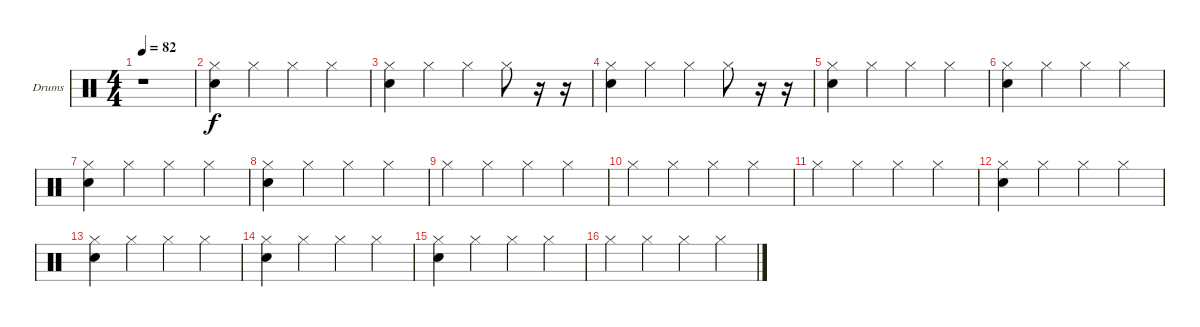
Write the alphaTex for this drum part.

\bracketExtendMode groupsimilarinstruments
\firstSystemTrackNameOrientation horizontal
\otherSystemsTrackNameOrientation horizontal
\track ("Drumkit" "Drums") {instrument percussion}
\staff {score}
\articulation defaults
\ts (4 4)
\tempo 82
\clef neutral
\ks aminor
r.1{dy f} |
\ks c
("Snare (hit) 2" "Hi-Hat (closed)").4 "Hi-Hat (closed)".4 "Hi-Hat (closed)".4 "Hi-Hat (closed)".4 |
("Snare (hit) 2" "Hi-Hat (closed)").4 "Hi-Hat (closed)".4 "Hi-Hat (closed)".4 "Hi-Hat (closed)".8 r.16 r.16 |
("Snare (hit) 2" "Hi-Hat (closed)").4 "Hi-Hat (closed)".4 "Hi-Hat (closed)".4 "Hi-Hat (closed)".8 r.16 r.16 |
("Snare (hit) 2" "Hi-Hat (closed)").4 "Hi-Hat (closed)".4 "Hi-Hat (closed)".4 "Hi-Hat (closed)".4 |
("Snare (hit) 2" "Hi-Hat (closed)").4 "Hi-Hat (closed)".4 "Hi-Hat (closed)".4 "Hi-Hat (closed)".4 |
("Snare (hit) 2" "Hi-Hat (closed)").4 "Hi-Hat (closed)".4 "Hi-Hat (closed)".4 "Hi-Hat (closed)".4 |
("Snare (hit) 2" "Hi-Hat (closed)").4 "Hi-Hat (closed)".4 "Hi-Hat (closed)".4 "Hi-Hat (closed)".4 |
"Hi-Hat (closed)".4 "Hi-Hat (closed)".4 "Hi-Hat (closed)".4 "Hi-Hat (closed)".4 |
"Hi-Hat (closed)".4 "Hi-Hat (closed)".4 "Hi-Hat (closed)".4 "Hi-Hat (closed)".4 |
"Hi-Hat (closed)".4 "Hi-Hat (closed)".4 "Hi-Hat (closed)".4 "Hi-Hat (closed)".4 |
("Snare (hit) 2" "Hi-Hat (closed)").4 "Hi-Hat (closed)".4 "Hi-Hat (closed)".4 "Hi-Hat (closed)".4 |
("Snare (hit) 2" "Hi-Hat (closed)").4 "Hi-Hat (closed)".4 "Hi-Hat (closed)".4 "Hi-Hat (closed)".4 |
("Snare (hit) 2" "Hi-Hat (closed)").4 "Hi-Hat (closed)".4 "Hi-Hat (closed)".4 "Hi-Hat (closed)".4 |
("Snare (hit) 2" "Hi-Hat (closed)").4 "Hi-Hat (closed)".4 "Hi-Hat (closed)".4 "Hi-Hat (closed)".4 |
"Hi-Hat (closed)".4 "Hi-Hat (closed)".4 "Hi-Hat (closed)".4 "Hi-Hat (closed)".4
